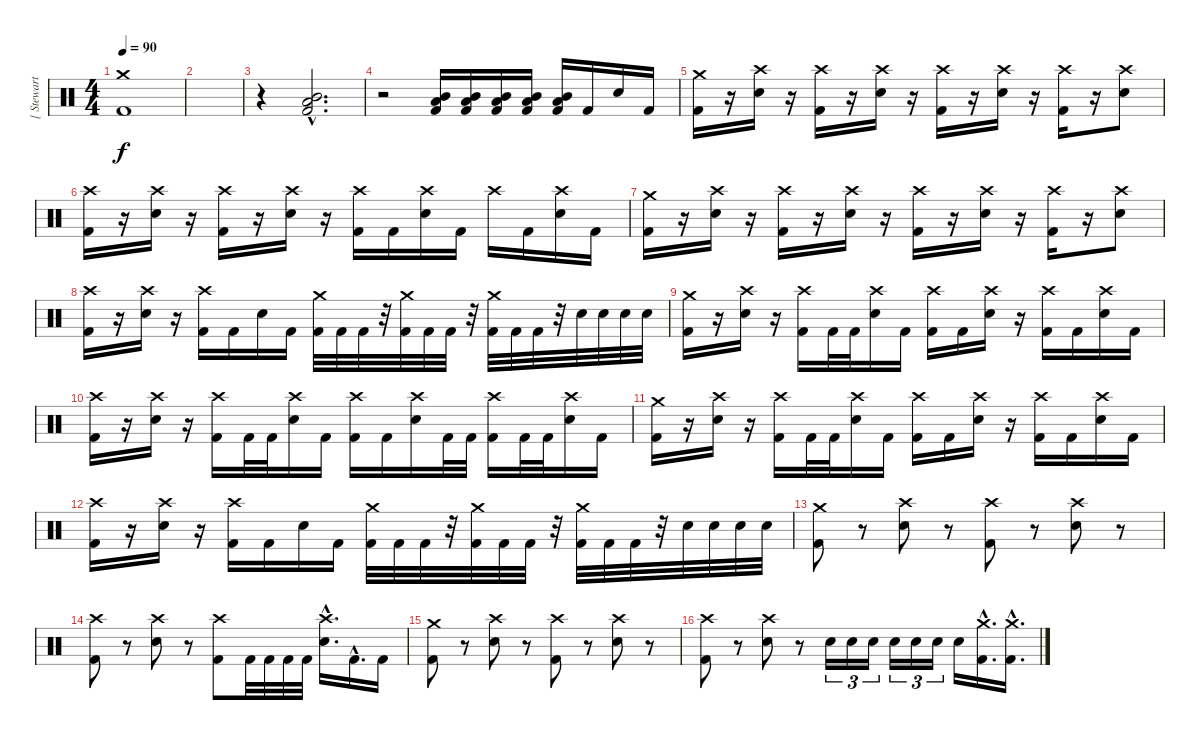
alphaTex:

\track ("[ Stewart ]" "[ Stewart ") {instrument percussion}
\staff {score}
\articulation defaults
\ts (4 4)
\tempo 90
\clef neutral
\ks c
("Kick (hit) 2" "Crash medium (hit)").1{dy f} |
|
r.4 ("Mid Tom (hit)"{hac} "Low Tom (hit)"{hac} "Kick (hit) 2"{hac}).2{d} |
r.2 ("Mid Tom (hit)" "Low Tom (hit)" "Kick (hit) 2").16 ("Mid Tom (hit)" "Low Tom (hit)" "Kick (hit) 2").16 ("Mid Tom (hit)" "Low Tom (hit)" "Kick (hit) 2").16 ("Mid Tom (hit)" "Low Tom (hit)" "Kick (hit) 2").16 ("Mid Tom (hit)" "Low Tom (hit)" "Kick (hit) 2").16 "Kick (hit) 2".16 "Electric Snare (hit)".16 "Kick (hit) 2".16 |
("Kick (hit) 2" "Crash medium (hit)").16 r.16 ("Electric Snare (hit)" "Crash high (hit)").16 r.16 ("Kick (hit) 2" "Crash high (hit)").16 r.16 ("Electric Snare (hit)" "Crash high (hit)").16 r.16 ("Kick (hit) 2" "Crash high (hit)").16 r.16 ("Electric Snare (hit)" "Crash high (hit)").16 r.16 ("Kick (hit) 2" "Crash high (hit)").16 r.16 ("Electric Snare (hit)" "Crash high (hit)").8 |
("Kick (hit) 2" "Crash high (hit)").16 r.16 ("Electric Snare (hit)" "Crash high (hit)").16 r.16 ("Kick (hit) 2" "Crash high (hit)").16 r.16 ("Electric Snare (hit)" "Crash high (hit)").16 r.16 ("Kick (hit) 2" "Crash high (hit)").16 "Kick (hit) 2".16 ("Electric Snare (hit)" "Crash high (hit)").16 "Kick (hit) 2".16 "Crash high (hit)".16 "Kick (hit) 2".16 ("Electric Snare (hit)" "Crash high (hit)").16 "Kick (hit) 2".16 |
("Kick (hit) 2" "Crash medium (hit)").16 r.16 ("Electric Snare (hit)" "Crash high (hit)").16 r.16 ("Kick (hit) 2" "Crash high (hit)").16 r.16 ("Electric Snare (hit)" "Crash high (hit)").16 r.16 ("Kick (hit) 2" "Crash high (hit)").16 r.16 ("Electric Snare (hit)" "Crash high (hit)").16 r.16 ("Kick (hit) 2" "Crash high (hit)").16 r.16 ("Electric Snare (hit)" "Crash high (hit)").8 |
("Kick (hit) 2" "Crash high (hit)").16 r.16 ("Electric Snare (hit)" "Crash high (hit)").16 r.16 ("Kick (hit) 2" "Crash high (hit)").16 "Kick (hit) 2".16 "Electric Snare (hit)".16 "Kick (hit) 2".16 ("Kick (hit) 2" "Crash medium (hit)").32 "Kick (hit) 2".32 "Kick (hit) 2".32 r.32 ("Kick (hit) 2" "Crash medium (hit)").32 "Kick (hit) 2".32 "Kick (hit) 2".32 r.32 ("Kick (hit) 2" "Crash medium (hit)").32 "Kick (hit) 2".32 "Kick (hit) 2".32 r.32 "Electric Snare (hit)".32 "Electric Snare (hit)".32 "Electric Snare (hit)".32 "Electric Snare (hit)".32 |
("Kick (hit) 2" "Crash medium (hit)").16 r.16 ("Electric Snare (hit)" "Crash high (hit)").16 r.16 ("Kick (hit) 2" "Crash high (hit)").16 "Kick (hit) 2".32 "Kick (hit) 2".32 ("Electric Snare (hit)" "Crash high (hit)").16 "Kick (hit) 2".16 ("Kick (hit) 2" "Crash high (hit)").16 "Kick (hit) 2".16 ("Electric Snare (hit)" "Crash high (hit)").16 r.16 ("Kick (hit) 2" "Crash high (hit)").16 "Kick (hit) 2".16 ("Electric Snare (hit)" "Crash high (hit)").16 "Kick (hit) 2".16 |
("Kick (hit) 2" "Crash high (hit)").16 r.16 ("Electric Snare (hit)" "Crash high (hit)").16 r.16 ("Kick (hit) 2" "Crash high (hit)").16 "Kick (hit) 2".32 "Kick (hit) 2".32 ("Electric Snare (hit)" "Crash high (hit)").16 "Kick (hit) 2".16 ("Kick (hit) 2" "Crash high (hit)").16 "Kick (hit) 2".16 ("Electric Snare (hit)" "Crash high (hit)").16 "Kick (hit) 2".32 "Kick (hit) 2".32 ("Kick (hit) 2" "Crash high (hit)").16 "Kick (hit) 2".32 "Kick (hit) 2".32 ("Electric Snare (hit)" "Crash high (hit)").16 "Kick (hit) 2".16 |
("Kick (hit) 2" "Crash medium (hit)").16 r.16 ("Electric Snare (hit)" "Crash high (hit)").16 r.16 ("Kick (hit) 2" "Crash high (hit)").16 "Kick (hit) 2".32 "Kick (hit) 2".32 ("Electric Snare (hit)" "Crash high (hit)").16 "Kick (hit) 2".16 ("Kick (hit) 2" "Crash high (hit)").16 "Kick (hit) 2".16 ("Electric Snare (hit)" "Crash high (hit)").16 r.16 ("Kick (hit) 2" "Crash high (hit)").16 "Kick (hit) 2".16 ("Electric Snare (hit)" "Crash high (hit)").16 "Kick (hit) 2".16 |
("Kick (hit) 2" "Crash high (hit)").16 r.16 ("Electric Snare (hit)" "Crash high (hit)").16 r.16 ("Kick (hit) 2" "Crash high (hit)").16 "Kick (hit) 2".16 "Electric Snare (hit)".16 "Kick (hit) 2".16 ("Kick (hit) 2" "Crash medium (hit)").32 "Kick (hit) 2".32 "Kick (hit) 2".32 r.32 ("Kick (hit) 2" "Crash medium (hit)").32 "Kick (hit) 2".32 "Kick (hit) 2".32 r.32 ("Kick (hit) 2" "Crash medium (hit)").32 "Kick (hit) 2".32 "Kick (hit) 2".32 r.32 "Electric Snare (hit)".32 "Electric Snare (hit)".32 "Electric Snare (hit)".32 "Electric Snare (hit)".32 |
("Kick (hit) 2" "Crash medium (hit)").8 r.8 ("Electric Snare (hit)" "Crash high (hit)").8 r.8 ("Kick (hit) 2" "Crash high (hit)").8 r.8 ("Electric Snare (hit)" "Crash high (hit)").8 r.8 |
("Kick (hit) 2" "Crash high (hit)").8 r.8 ("Electric Snare (hit)" "Crash high (hit)").8 r.8 ("Kick (hit) 2" "Crash high (hit)").8 "Kick (hit) 2".32 "Kick (hit) 2".32 "Kick (hit) 2".32 "Kick (hit) 2".32 ("Electric Snare (hit)"{hac} "Crash high (hit)"{hac}).16{d} "Kick (hit) 2"{hac}.16{d} "Kick (hit) 2".16 |
("Kick (hit) 2" "Crash medium (hit)").8 r.8 ("Electric Snare (hit)" "Crash high (hit)").8 r.8 ("Kick (hit) 2" "Crash high (hit)").8 r.8 ("Electric Snare (hit)" "Crash high (hit)").8 r.8 |
("Kick (hit) 2" "Crash high (hit)").8 r.8 ("Electric Snare (hit)" "Crash high (hit)").8 r.8 "Electric Snare (hit)".16{tu (3 2)} "Electric Snare (hit)".16{tu (3 2)} "Electric Snare (hit)".16{tu (3 2)} "Electric Snare (hit)".16{tu (3 2)} "Electric Snare (hit)".16{tu (3 2)} "Electric Snare (hit)".16{tu (3 2)} "Electric Snare (hit)".16 ("Kick (hit) 2"{hac} "Crash medium (hit)"{hac}).16{d} ("Kick (hit) 2"{hac} "Crash medium (hit)"{hac}).16{d}
